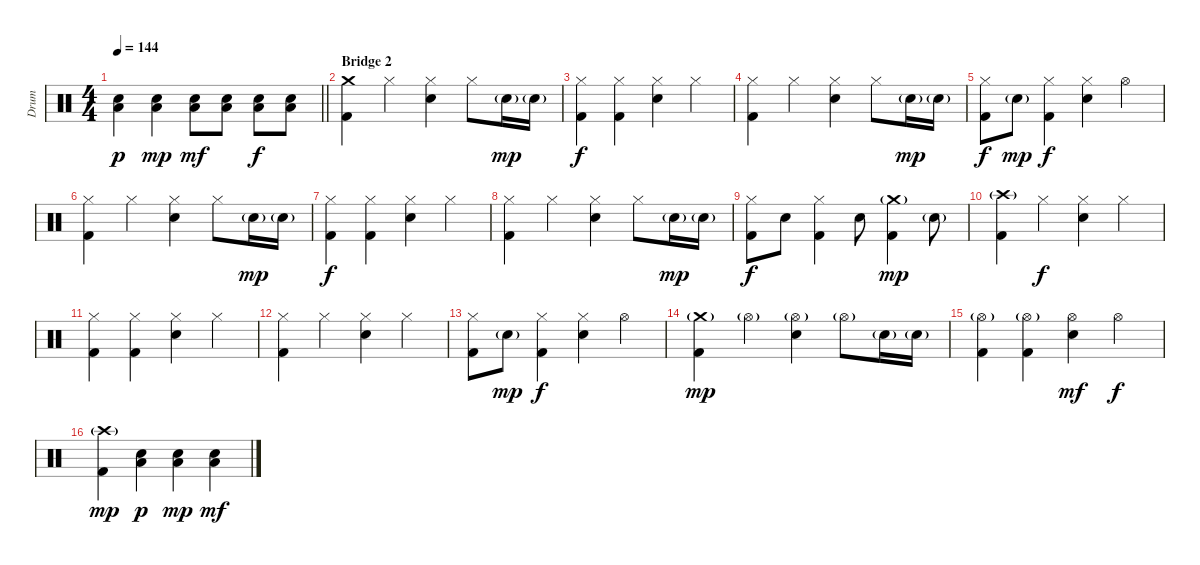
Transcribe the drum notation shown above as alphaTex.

\track ("Drum" "Drum") {instrument percussion}
\staff {score}
\articulation defaults
\ts (4 4)
\tempo 144
\clef neutral
\barLineRight lightlight
\ks c
("Electric Snare (hit)" "Low Floor Tom (hit)").4{dy p} ("Electric Snare (hit)" "Low Floor Tom (hit)").4{dy mp} ("Electric Snare (hit)" "Low Floor Tom (hit)").8{dy mf} ("Electric Snare (hit)" "Low Floor Tom (hit)").8 ("Electric Snare (hit)" "Low Floor Tom (hit)").8{dy f} ("Electric Snare (hit)" "Low Floor Tom (hit)").8 |
\section ("" "Bridge 2")
("Crash medium (hit)" "Kick (hit) 2").4 "Hi-Hat (closed)".4 ("Hi-Hat (closed)" "Electric Snare (hit)").4 "Hi-Hat (closed)".8 "Electric Snare (hit)"{g}.16{dy mp} "Electric Snare (hit)"{g}.16 |
("Hi-Hat (closed)" "Kick (hit) 2").4{dy f} ("Hi-Hat (closed)" "Kick (hit) 2").4 ("Hi-Hat (closed)" "Electric Snare (hit)").4 "Hi-Hat (closed)".4 |
("Hi-Hat (closed)" "Kick (hit) 2").4 "Hi-Hat (closed)".4 ("Hi-Hat (closed)" "Electric Snare (hit)").4 "Hi-Hat (closed)".8 "Electric Snare (hit)"{g}.16{dy mp} "Electric Snare (hit)"{g}.16 |
("Hi-Hat (closed)" "Kick (hit) 2").8{dy f} "Electric Snare (hit)"{g}.8{dy mp} ("Hi-Hat (closed)" "Kick (hit) 2").4{dy f} ("Hi-Hat (closed)" "Electric Snare (hit)").4 "Hi-Hat (open)".4 |
("Hi-Hat (closed)" "Kick (hit) 2").4 "Hi-Hat (closed)".4 ("Hi-Hat (closed)" "Electric Snare (hit)").4 "Hi-Hat (closed)".8 "Electric Snare (hit)"{g}.16{dy mp} "Electric Snare (hit)"{g}.16 |
("Hi-Hat (closed)" "Kick (hit) 2").4{dy f} ("Hi-Hat (closed)" "Kick (hit) 2").4 ("Hi-Hat (closed)" "Electric Snare (hit)").4 "Hi-Hat (closed)".4 |
("Hi-Hat (closed)" "Kick (hit) 2").4 "Hi-Hat (closed)".4 ("Hi-Hat (closed)" "Electric Snare (hit)").4 "Hi-Hat (closed)".8 "Electric Snare (hit)"{g}.16{dy mp} "Electric Snare (hit)"{g}.16 |
("Hi-Hat (closed)" "Kick (hit) 2").8{dy f} "Electric Snare (hit)".8 ("Hi-Hat (closed)" "Kick (hit) 2").4 "Electric Snare (hit)".8 ("Crash medium (hit)"{g} "Kick (hit) 2").4{dy mp} "Electric Snare (hit)"{g}.8 |
("Crash high (hit)"{g} "Kick (hit) 2").4 "Hi-Hat (closed)".4{dy f} ("Hi-Hat (closed)" "Electric Snare (hit)").4 "Hi-Hat (closed)".4 |
("Hi-Hat (closed)" "Kick (hit) 2").4 ("Hi-Hat (closed)" "Kick (hit) 2").4 ("Hi-Hat (closed)" "Electric Snare (hit)").4 "Hi-Hat (closed)".4 |
("Hi-Hat (closed)" "Kick (hit) 2").4 "Hi-Hat (closed)".4 ("Hi-Hat (closed)" "Electric Snare (hit)").4 "Hi-Hat (closed)".4 |
("Hi-Hat (closed)" "Kick (hit) 2").8 "Electric Snare (hit)"{g}.8{dy mp} ("Hi-Hat (closed)" "Kick (hit) 2").4{dy f} ("Hi-Hat (closed)" "Electric Snare (hit)").4 "Hi-Hat (open)".4 |
("Crash medium (hit)"{g} "Kick (hit) 2").4{dy mp} "Hi-Hat (open)"{g}.4 ("Hi-Hat (open)"{g} "Electric Snare (hit)").4 "Hi-Hat (open)"{g}.8 "Electric Snare (hit)"{g}.16 "Electric Snare (hit)"{g}.16 |
("Hi-Hat (open)"{g} "Kick (hit) 2").4 ("Hi-Hat (open)"{g} "Kick (hit) 2").4 ("Hi-Hat (open)" "Electric Snare (hit)").4{dy mf} "Hi-Hat (open)".4{dy f} |
("Crash high (hit)"{g} "Kick (hit) 2").4{dy mp} ("Electric Snare (hit)" "Low Floor Tom (hit)").4{dy p} ("Electric Snare (hit)" "Low Floor Tom (hit)").4{dy mp} ("Electric Snare (hit)" "Low Floor Tom (hit)").4{dy mf}
